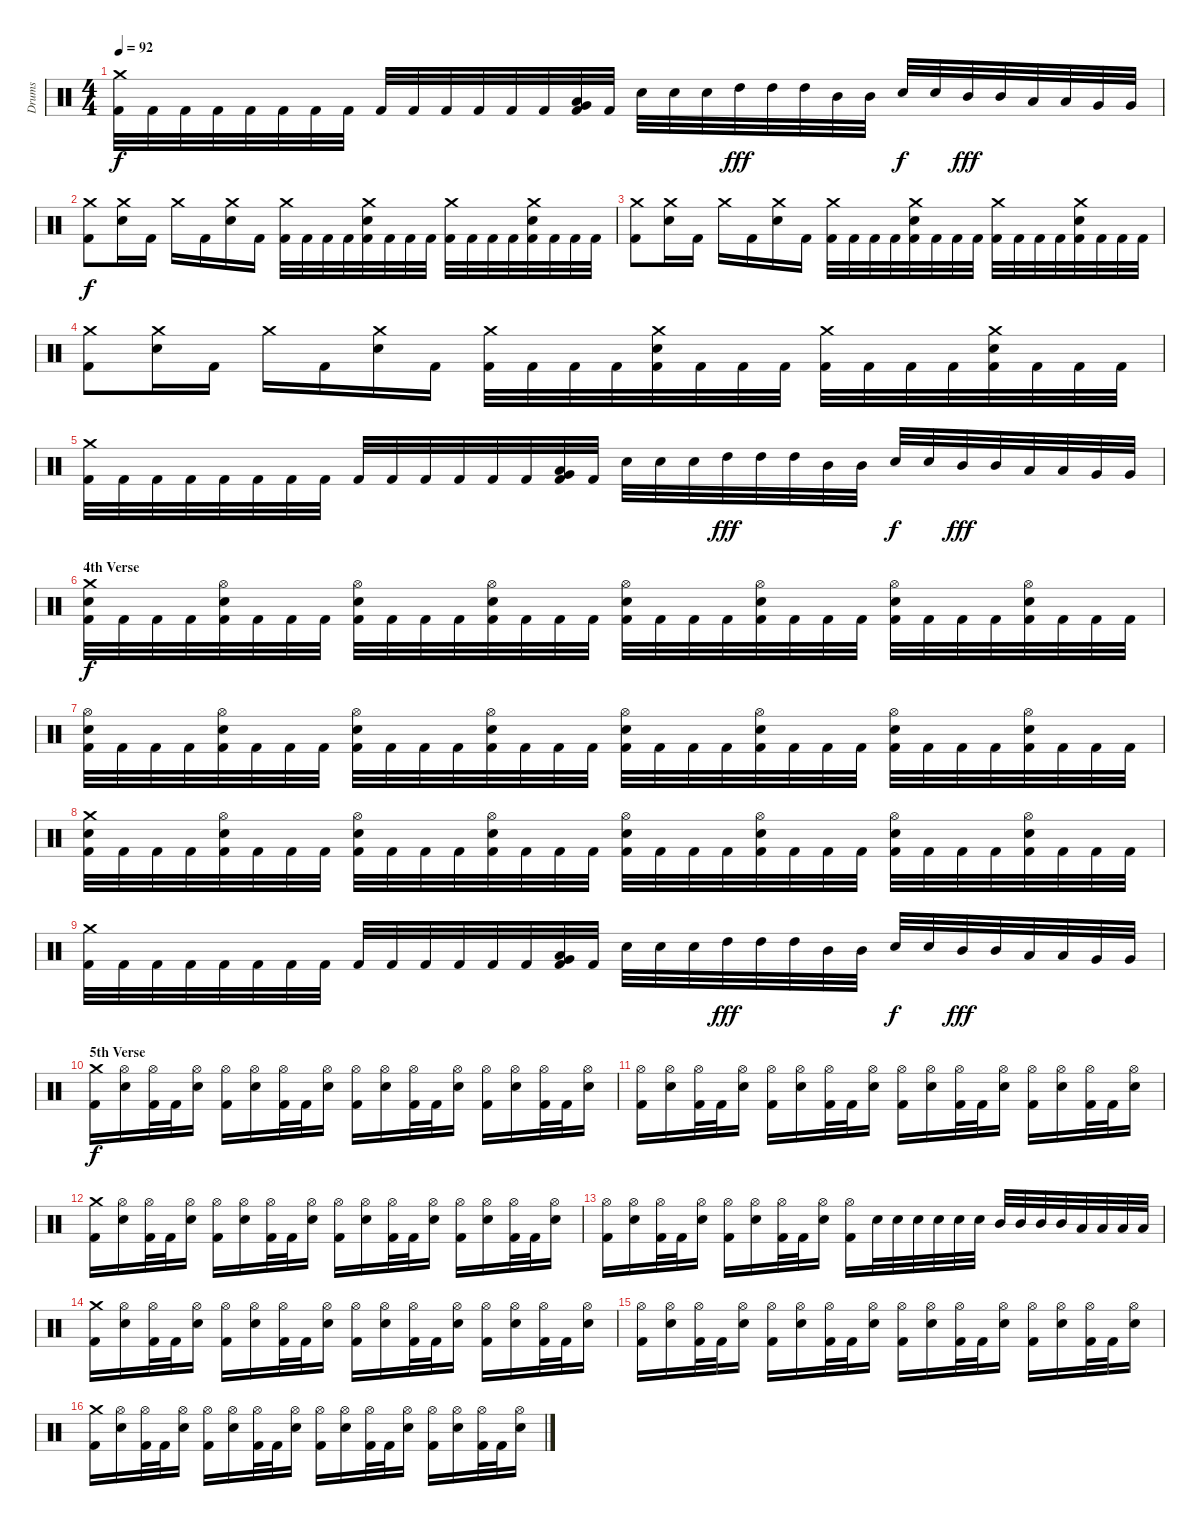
\track ("Drums" "Drums") {instrument percussion}
\staff {score}
\articulation defaults
\ts (4 4)
\tempo 92
\clef neutral
\ks c
("Kick (hit) 2" "Crash medium (hit)").32{dy f} "Kick (hit) 2".32 "Kick (hit) 2".32 "Kick (hit) 2".32 "Kick (hit) 2".32 "Kick (hit) 2".32 "Kick (hit) 2".32 "Kick (hit) 2".32 "Kick (hit) 2".32 "Kick (hit) 2".32 "Kick (hit) 2".32 "Kick (hit) 2".32 "Kick (hit) 2".32 "Kick (hit) 2".32 ("Kick (hit) 2" "Low Tom (hit)" "Very Low Tom (hit)").32 "Kick (hit) 2".32 "Electric Snare (hit)".32 "Electric Snare (hit)".32 "Electric Snare (hit)".32 "High Tom (hit)".32{dy fff} "High Tom (hit)".32 "High Tom (hit)".32 "Mid Tom (hit)".32 "Mid Tom (hit)".32 "Electric Snare (hit)".32{dy f} "Electric Snare (hit)".32 "Mid Tom (hit)".32{dy fff} "Mid Tom (hit)".32 "Low Tom (hit)".32 "Low Tom (hit)".32 "Very Low Tom (hit)".32 "Very Low Tom (hit)".32 |
("Kick (hit) 2" "Crash medium (hit)").8{dy f} ("Electric Snare (hit)" "Crash medium (hit)").16 "Kick (hit) 2".16 "Crash medium (hit)".16 "Kick (hit) 2".16 ("Electric Snare (hit)" "Crash medium (hit)").16 "Kick (hit) 2".16 ("Kick (hit) 2" "Crash medium (hit)").32 "Kick (hit) 2".32 "Kick (hit) 2".32 "Kick (hit) 2".32 ("Kick (hit) 2" "Electric Snare (hit)" "Crash medium (hit)").32 "Kick (hit) 2".32 "Kick (hit) 2".32 "Kick (hit) 2".32 ("Kick (hit) 2" "Crash medium (hit)").32 "Kick (hit) 2".32 "Kick (hit) 2".32 "Kick (hit) 2".32 ("Kick (hit) 2" "Electric Snare (hit)" "Crash medium (hit)").32 "Kick (hit) 2".32 "Kick (hit) 2".32 "Kick (hit) 2".32 |
("Kick (hit) 2" "Crash medium (hit)").8 ("Electric Snare (hit)" "Crash medium (hit)").16 "Kick (hit) 2".16 "Crash medium (hit)".16 "Kick (hit) 2".16 ("Electric Snare (hit)" "Crash medium (hit)").16 "Kick (hit) 2".16 ("Kick (hit) 2" "Crash medium (hit)").32 "Kick (hit) 2".32 "Kick (hit) 2".32 "Kick (hit) 2".32 ("Kick (hit) 2" "Electric Snare (hit)" "Crash medium (hit)").32 "Kick (hit) 2".32 "Kick (hit) 2".32 "Kick (hit) 2".32 ("Kick (hit) 2" "Crash medium (hit)").32 "Kick (hit) 2".32 "Kick (hit) 2".32 "Kick (hit) 2".32 ("Kick (hit) 2" "Electric Snare (hit)" "Crash medium (hit)").32 "Kick (hit) 2".32 "Kick (hit) 2".32 "Kick (hit) 2".32 |
("Kick (hit) 2" "Crash medium (hit)").8 ("Electric Snare (hit)" "Crash medium (hit)").16 "Kick (hit) 2".16 "Crash medium (hit)".16 "Kick (hit) 2".16 ("Electric Snare (hit)" "Crash medium (hit)").16 "Kick (hit) 2".16 ("Kick (hit) 2" "Crash medium (hit)").32 "Kick (hit) 2".32 "Kick (hit) 2".32 "Kick (hit) 2".32 ("Kick (hit) 2" "Electric Snare (hit)" "Crash medium (hit)").32 "Kick (hit) 2".32 "Kick (hit) 2".32 "Kick (hit) 2".32 ("Kick (hit) 2" "Crash medium (hit)").32 "Kick (hit) 2".32 "Kick (hit) 2".32 "Kick (hit) 2".32 ("Kick (hit) 2" "Electric Snare (hit)" "Crash medium (hit)").32 "Kick (hit) 2".32 "Kick (hit) 2".32 "Kick (hit) 2".32 |
("Kick (hit) 2" "Crash medium (hit)").32 "Kick (hit) 2".32 "Kick (hit) 2".32 "Kick (hit) 2".32 "Kick (hit) 2".32 "Kick (hit) 2".32 "Kick (hit) 2".32 "Kick (hit) 2".32 "Kick (hit) 2".32 "Kick (hit) 2".32 "Kick (hit) 2".32 "Kick (hit) 2".32 "Kick (hit) 2".32 "Kick (hit) 2".32 ("Kick (hit) 2" "Low Tom (hit)" "Very Low Tom (hit)").32 "Kick (hit) 2".32 "Electric Snare (hit)".32 "Electric Snare (hit)".32 "Electric Snare (hit)".32 "High Tom (hit)".32{dy fff} "High Tom (hit)".32 "High Tom (hit)".32 "Mid Tom (hit)".32 "Mid Tom (hit)".32 "Electric Snare (hit)".32{dy f} "Electric Snare (hit)".32 "Mid Tom (hit)".32{dy fff} "Mid Tom (hit)".32 "Low Tom (hit)".32 "Low Tom (hit)".32 "Very Low Tom (hit)".32 "Very Low Tom (hit)".32 |
\section ("" "4th Verse")
("Kick (hit) 2" "Electric Snare (hit)" "Crash medium (hit)").32{dy f} "Kick (hit) 2".32 "Kick (hit) 2".32 "Kick (hit) 2".32 ("Kick (hit) 2" "Electric Snare (hit)" "Hi-Hat (open)").32 "Kick (hit) 2".32 "Kick (hit) 2".32 "Kick (hit) 2".32 ("Kick (hit) 2" "Electric Snare (hit)" "Hi-Hat (open)").32 "Kick (hit) 2".32 "Kick (hit) 2".32 "Kick (hit) 2".32 ("Kick (hit) 2" "Electric Snare (hit)" "Hi-Hat (open)").32 "Kick (hit) 2".32 "Kick (hit) 2".32 "Kick (hit) 2".32 ("Kick (hit) 2" "Electric Snare (hit)" "Hi-Hat (open)").32 "Kick (hit) 2".32 "Kick (hit) 2".32 "Kick (hit) 2".32 ("Kick (hit) 2" "Electric Snare (hit)" "Hi-Hat (open)").32 "Kick (hit) 2".32 "Kick (hit) 2".32 "Kick (hit) 2".32 ("Kick (hit) 2" "Electric Snare (hit)" "Hi-Hat (open)").32 "Kick (hit) 2".32 "Kick (hit) 2".32 "Kick (hit) 2".32 ("Kick (hit) 2" "Electric Snare (hit)" "Hi-Hat (open)").32 "Kick (hit) 2".32 "Kick (hit) 2".32 "Kick (hit) 2".32 |
("Kick (hit) 2" "Electric Snare (hit)" "Hi-Hat (open)").32 "Kick (hit) 2".32 "Kick (hit) 2".32 "Kick (hit) 2".32 ("Kick (hit) 2" "Electric Snare (hit)" "Hi-Hat (open)").32 "Kick (hit) 2".32 "Kick (hit) 2".32 "Kick (hit) 2".32 ("Kick (hit) 2" "Electric Snare (hit)" "Hi-Hat (open)").32 "Kick (hit) 2".32 "Kick (hit) 2".32 "Kick (hit) 2".32 ("Kick (hit) 2" "Electric Snare (hit)" "Hi-Hat (open)").32 "Kick (hit) 2".32 "Kick (hit) 2".32 "Kick (hit) 2".32 ("Kick (hit) 2" "Electric Snare (hit)" "Hi-Hat (open)").32 "Kick (hit) 2".32 "Kick (hit) 2".32 "Kick (hit) 2".32 ("Kick (hit) 2" "Electric Snare (hit)" "Hi-Hat (open)").32 "Kick (hit) 2".32 "Kick (hit) 2".32 "Kick (hit) 2".32 ("Kick (hit) 2" "Electric Snare (hit)" "Hi-Hat (open)").32 "Kick (hit) 2".32 "Kick (hit) 2".32 "Kick (hit) 2".32 ("Kick (hit) 2" "Electric Snare (hit)" "Hi-Hat (open)").32 "Kick (hit) 2".32 "Kick (hit) 2".32 "Kick (hit) 2".32 |
("Kick (hit) 2" "Electric Snare (hit)" "Crash medium (hit)").32 "Kick (hit) 2".32 "Kick (hit) 2".32 "Kick (hit) 2".32 ("Kick (hit) 2" "Electric Snare (hit)" "Hi-Hat (open)").32 "Kick (hit) 2".32 "Kick (hit) 2".32 "Kick (hit) 2".32 ("Kick (hit) 2" "Electric Snare (hit)" "Hi-Hat (open)").32 "Kick (hit) 2".32 "Kick (hit) 2".32 "Kick (hit) 2".32 ("Kick (hit) 2" "Electric Snare (hit)" "Hi-Hat (open)").32 "Kick (hit) 2".32 "Kick (hit) 2".32 "Kick (hit) 2".32 ("Kick (hit) 2" "Electric Snare (hit)" "Hi-Hat (open)").32 "Kick (hit) 2".32 "Kick (hit) 2".32 "Kick (hit) 2".32 ("Kick (hit) 2" "Electric Snare (hit)" "Hi-Hat (open)").32 "Kick (hit) 2".32 "Kick (hit) 2".32 "Kick (hit) 2".32 ("Kick (hit) 2" "Electric Snare (hit)" "Hi-Hat (open)").32 "Kick (hit) 2".32 "Kick (hit) 2".32 "Kick (hit) 2".32 ("Kick (hit) 2" "Electric Snare (hit)" "Hi-Hat (open)").32 "Kick (hit) 2".32 "Kick (hit) 2".32 "Kick (hit) 2".32 |
("Kick (hit) 2" "Crash medium (hit)").32 "Kick (hit) 2".32 "Kick (hit) 2".32 "Kick (hit) 2".32 "Kick (hit) 2".32 "Kick (hit) 2".32 "Kick (hit) 2".32 "Kick (hit) 2".32 "Kick (hit) 2".32 "Kick (hit) 2".32 "Kick (hit) 2".32 "Kick (hit) 2".32 "Kick (hit) 2".32 "Kick (hit) 2".32 ("Kick (hit) 2" "Low Tom (hit)" "Very Low Tom (hit)").32 "Kick (hit) 2".32 "Electric Snare (hit)".32 "Electric Snare (hit)".32 "Electric Snare (hit)".32 "High Tom (hit)".32{dy fff} "High Tom (hit)".32 "High Tom (hit)".32 "Mid Tom (hit)".32 "Mid Tom (hit)".32 "Electric Snare (hit)".32{dy f} "Electric Snare (hit)".32 "Mid Tom (hit)".32{dy fff} "Mid Tom (hit)".32 "Low Tom (hit)".32 "Low Tom (hit)".32 "Very Low Tom (hit)".32 "Very Low Tom (hit)".32 |
\section ("" "5th Verse")
("Kick (hit) 2" "Crash medium (hit)").16{dy f} ("Electric Snare (hit)" "Hi-Hat (open)").16 ("Kick (hit) 2" "Hi-Hat (open)").32 "Kick (hit) 2".32 ("Electric Snare (hit)" "Hi-Hat (open)").16 ("Kick (hit) 2" "Hi-Hat (open)").16 ("Electric Snare (hit)" "Hi-Hat (open)").16 ("Kick (hit) 2" "Hi-Hat (open)").32 "Kick (hit) 2".32 ("Electric Snare (hit)" "Hi-Hat (open)").16 ("Kick (hit) 2" "Hi-Hat (open)").16 ("Electric Snare (hit)" "Hi-Hat (open)").16 ("Kick (hit) 2" "Hi-Hat (open)").32 "Kick (hit) 2".32 ("Electric Snare (hit)" "Hi-Hat (open)").16 ("Kick (hit) 2" "Hi-Hat (open)").16 ("Electric Snare (hit)" "Hi-Hat (open)").16 ("Kick (hit) 2" "Hi-Hat (open)").32 "Kick (hit) 2".32 ("Electric Snare (hit)" "Hi-Hat (open)").16 |
("Kick (hit) 2" "Hi-Hat (open)").16 ("Electric Snare (hit)" "Hi-Hat (open)").16 ("Kick (hit) 2" "Hi-Hat (open)").32 "Kick (hit) 2".32 ("Electric Snare (hit)" "Hi-Hat (open)").16 ("Kick (hit) 2" "Hi-Hat (open)").16 ("Electric Snare (hit)" "Hi-Hat (open)").16 ("Kick (hit) 2" "Hi-Hat (open)").32 "Kick (hit) 2".32 ("Electric Snare (hit)" "Hi-Hat (open)").16 ("Kick (hit) 2" "Hi-Hat (open)").16 ("Electric Snare (hit)" "Hi-Hat (open)").16 ("Kick (hit) 2" "Hi-Hat (open)").32 "Kick (hit) 2".32 ("Electric Snare (hit)" "Hi-Hat (open)").16 ("Kick (hit) 2" "Hi-Hat (open)").16 ("Electric Snare (hit)" "Hi-Hat (open)").16 ("Kick (hit) 2" "Hi-Hat (open)").32 "Kick (hit) 2".32 ("Electric Snare (hit)" "Hi-Hat (open)").16 |
("Kick (hit) 2" "Crash medium (hit)").16 ("Electric Snare (hit)" "Hi-Hat (open)").16 ("Kick (hit) 2" "Hi-Hat (open)").32 "Kick (hit) 2".32 ("Electric Snare (hit)" "Hi-Hat (open)").16 ("Kick (hit) 2" "Hi-Hat (open)").16 ("Electric Snare (hit)" "Hi-Hat (open)").16 ("Kick (hit) 2" "Hi-Hat (open)").32 "Kick (hit) 2".32 ("Electric Snare (hit)" "Hi-Hat (open)").16 ("Kick (hit) 2" "Hi-Hat (open)").16 ("Electric Snare (hit)" "Hi-Hat (open)").16 ("Kick (hit) 2" "Hi-Hat (open)").32 "Kick (hit) 2".32 ("Electric Snare (hit)" "Hi-Hat (open)").16 ("Kick (hit) 2" "Hi-Hat (open)").16 ("Electric Snare (hit)" "Hi-Hat (open)").16 ("Kick (hit) 2" "Hi-Hat (open)").32 "Kick (hit) 2".32 ("Electric Snare (hit)" "Hi-Hat (open)").16 |
("Kick (hit) 2" "Hi-Hat (open)").16 ("Electric Snare (hit)" "Hi-Hat (open)").16 ("Kick (hit) 2" "Hi-Hat (open)").32 "Kick (hit) 2".32 ("Electric Snare (hit)" "Hi-Hat (open)").16 ("Kick (hit) 2" "Hi-Hat (open)").16 ("Electric Snare (hit)" "Hi-Hat (open)").16 ("Kick (hit) 2" "Hi-Hat (open)").32 "Kick (hit) 2".32 ("Electric Snare (hit)" "Hi-Hat (open)").16 ("Kick (hit) 2" "Hi-Hat (open)").16 "Electric Snare (hit)".32 "Electric Snare (hit)".32 "Electric Snare (hit)".32 "Electric Snare (hit)".32 "Electric Snare (hit)".32 "Electric Snare (hit)".32 "Mid Tom (hit)".32 "Mid Tom (hit)".32 "Mid Tom (hit)".32 "Mid Tom (hit)".32 "Low Tom (hit)".32 "Low Tom (hit)".32 "Low Tom (hit)".32 "Low Tom (hit)".32 |
("Kick (hit) 2" "Crash medium (hit)").16 ("Electric Snare (hit)" "Hi-Hat (open)").16 ("Kick (hit) 2" "Hi-Hat (open)").32 "Kick (hit) 2".32 ("Electric Snare (hit)" "Hi-Hat (open)").16 ("Kick (hit) 2" "Hi-Hat (open)").16 ("Electric Snare (hit)" "Hi-Hat (open)").16 ("Kick (hit) 2" "Hi-Hat (open)").32 "Kick (hit) 2".32 ("Electric Snare (hit)" "Hi-Hat (open)").16 ("Kick (hit) 2" "Hi-Hat (open)").16 ("Electric Snare (hit)" "Hi-Hat (open)").16 ("Kick (hit) 2" "Hi-Hat (open)").32 "Kick (hit) 2".32 ("Electric Snare (hit)" "Hi-Hat (open)").16 ("Kick (hit) 2" "Hi-Hat (open)").16 ("Electric Snare (hit)" "Hi-Hat (open)").16 ("Kick (hit) 2" "Hi-Hat (open)").32 "Kick (hit) 2".32 ("Electric Snare (hit)" "Hi-Hat (open)").16 |
("Kick (hit) 2" "Hi-Hat (open)").16 ("Electric Snare (hit)" "Hi-Hat (open)").16 ("Kick (hit) 2" "Hi-Hat (open)").32 "Kick (hit) 2".32 ("Electric Snare (hit)" "Hi-Hat (open)").16 ("Kick (hit) 2" "Hi-Hat (open)").16 ("Electric Snare (hit)" "Hi-Hat (open)").16 ("Kick (hit) 2" "Hi-Hat (open)").32 "Kick (hit) 2".32 ("Electric Snare (hit)" "Hi-Hat (open)").16 ("Kick (hit) 2" "Hi-Hat (open)").16 ("Electric Snare (hit)" "Hi-Hat (open)").16 ("Kick (hit) 2" "Hi-Hat (open)").32 "Kick (hit) 2".32 ("Electric Snare (hit)" "Hi-Hat (open)").16 ("Kick (hit) 2" "Hi-Hat (open)").16 ("Electric Snare (hit)" "Hi-Hat (open)").16 ("Kick (hit) 2" "Hi-Hat (open)").32 "Kick (hit) 2".32 ("Electric Snare (hit)" "Hi-Hat (open)").16 |
("Kick (hit) 2" "Crash medium (hit)").16 ("Electric Snare (hit)" "Hi-Hat (open)").16 ("Kick (hit) 2" "Hi-Hat (open)").32 "Kick (hit) 2".32 ("Electric Snare (hit)" "Hi-Hat (open)").16 ("Kick (hit) 2" "Hi-Hat (open)").16 ("Electric Snare (hit)" "Hi-Hat (open)").16 ("Kick (hit) 2" "Hi-Hat (open)").32 "Kick (hit) 2".32 ("Electric Snare (hit)" "Hi-Hat (open)").16 ("Kick (hit) 2" "Hi-Hat (open)").16 ("Electric Snare (hit)" "Hi-Hat (open)").16 ("Kick (hit) 2" "Hi-Hat (open)").32 "Kick (hit) 2".32 ("Electric Snare (hit)" "Hi-Hat (open)").16 ("Kick (hit) 2" "Hi-Hat (open)").16 ("Electric Snare (hit)" "Hi-Hat (open)").16 ("Kick (hit) 2" "Hi-Hat (open)").32 "Kick (hit) 2".32 ("Electric Snare (hit)" "Hi-Hat (open)").16
